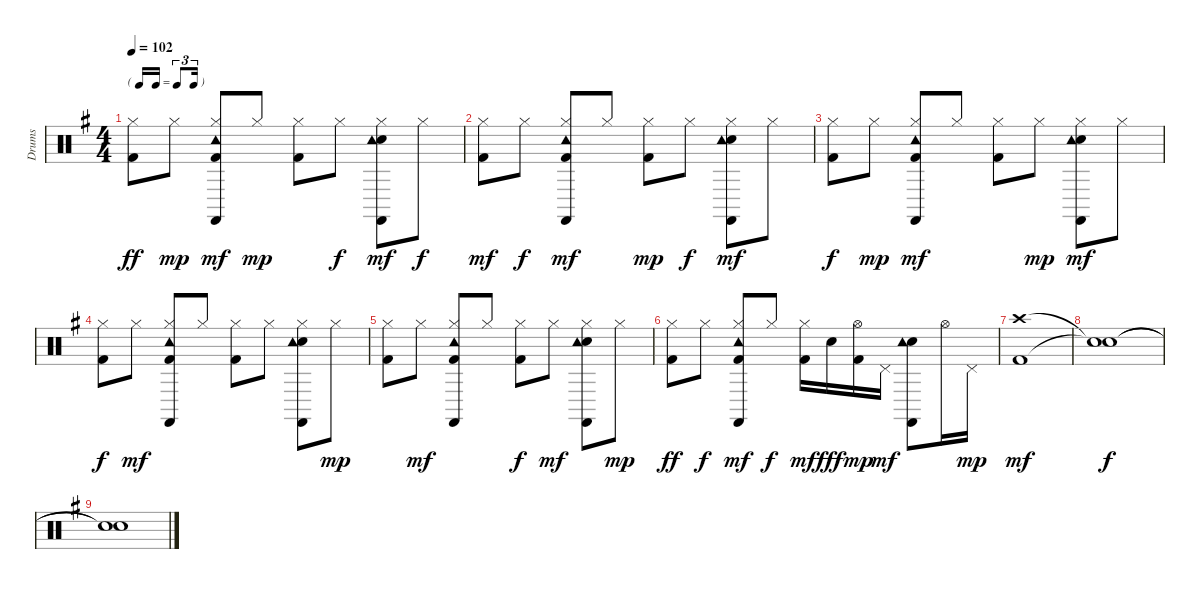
\track ("Drums" "Drums") {instrument percussion}
\staff {score}
\articulation defaults
\ts (4 4)
\tf triplet16th
\tempo 102
\clef neutral
\ks g
("Kick (hit) 2" "Hi-Hat (closed)").8{dy ff} "Hi-Hat (closed)".8{dy mp} ("Kick (hit) 2" "Hi-Hat (closed)" "Tambourine (hit)" "Castanets (hit)").8{dy mf} "Hi-Hat (closed)".8{dy mp} ("Kick (hit) 2" "Hi-Hat (closed)").8 "Hi-Hat (closed)".8{dy f} ("Snare (hit) 2" "Hi-Hat (closed)" "Tambourine (hit)" "Castanets (hit)").8{dy mf} "Hi-Hat (closed)".8{dy f} |
("Kick (hit) 2" "Hi-Hat (closed)").8{dy mf} "Hi-Hat (closed)".8{dy f} ("Kick (hit) 2" "Hi-Hat (closed)" "Tambourine (hit)" "Castanets (hit)").8{dy mf} "Hi-Hat (closed)".8 ("Kick (hit) 2" "Hi-Hat (closed)").8{dy mp} "Hi-Hat (closed)".8{dy f} ("Snare (hit) 2" "Hi-Hat (closed)" "Tambourine (hit)" "Castanets (hit)").8{dy mf} "Hi-Hat (closed)".8 |
("Kick (hit) 2" "Hi-Hat (closed)").8{dy f} "Hi-Hat (closed)".8{dy mp} ("Kick (hit) 2" "Hi-Hat (closed)" "Tambourine (hit)" "Castanets (hit)").8{dy mf} "Hi-Hat (closed)".8 ("Kick (hit) 2" "Hi-Hat (closed)").8 "Hi-Hat (closed)".8{dy mp} ("Snare (hit) 2" "Hi-Hat (closed)" "Tambourine (hit)" "Castanets (hit)").8{dy mf} "Hi-Hat (closed)".8 |
("Kick (hit) 2" "Hi-Hat (closed)").8{dy f} "Hi-Hat (closed)".8{dy mf} ("Kick (hit) 2" "Hi-Hat (closed)" "Tambourine (hit)" "Castanets (hit)").8 "Hi-Hat (closed)".8 ("Kick (hit) 2" "Hi-Hat (closed)").8 "Hi-Hat (closed)".8 ("Snare (hit) 2" "Hi-Hat (closed)" "Tambourine (hit)" "Castanets (hit)").8 "Hi-Hat (closed)".8{dy mp} |
("Kick (hit) 2" "Hi-Hat (closed)").8 "Hi-Hat (closed)".8{dy mf} ("Kick (hit) 2" "Hi-Hat (closed)" "Tambourine (hit)" "Castanets (hit)").8 "Hi-Hat (closed)".8 ("Kick (hit) 2" "Hi-Hat (closed)").8{dy f} "Hi-Hat (closed)".8{dy mf} ("Snare (hit) 2" "Hi-Hat (closed)" "Tambourine (hit)" "Castanets (hit)").8 "Hi-Hat (closed)".8{dy mp} |
("Kick (hit) 2" "Hi-Hat (closed)").8{dy ff} "Hi-Hat (closed)".8{dy f} ("Kick (hit) 2" "Hi-Hat (closed)" "Tambourine (hit)" "Castanets (hit)").8{dy mf} "Hi-Hat (closed)".8{dy f} ("Kick (hit) 2" "Hi-Hat (closed)").16{dy mf} "Snare (hit) 2".16{dy fff} ("Kick (hit) 2" "Hi-Hat (open)").16{dy mp} "Pedal Hi-Hat (hit)".16{dy mf} ("Snare (hit) 2" "Tambourine (hit)" "Castanets (hit)").8 "Hi-Hat (open)".16 "Pedal Hi-Hat (hit)".16{dy mp} |
("Kick (hit) 2" "Crash high (hit)").1{dy mf} |
("Snare (hit)"{t} "Snare (hit)"{t}).1{dy f} |
("Snare (hit)"{t} "Snare (hit)"{t}).1
